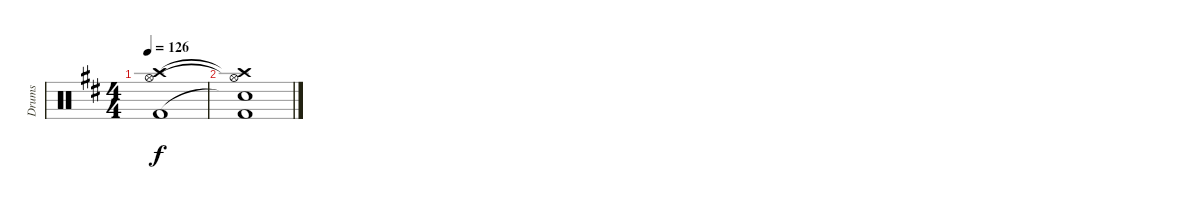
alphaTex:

\track ("Drums" "Drums") {instrument percussion}
\staff {score}
\articulation defaults
\ts (4 4)
\tempo 126
\clef neutral
\ks d
("Crash high (hit)"{t} "Hi-Hat (open)"{t} "Kick (hit) 2"{t}).1{dy f} |
("Crash high (hit)"{t} "Hi-Hat (open)"{t} "Snare (hit)"{t} "Kick (hit) 2").1
